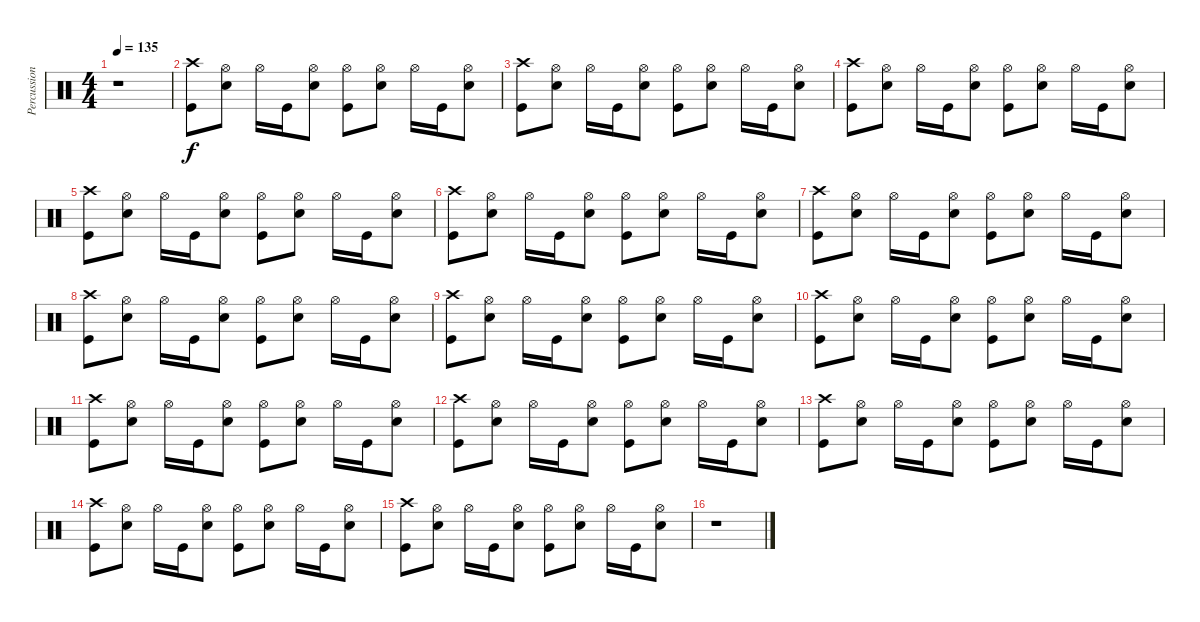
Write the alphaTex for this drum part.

\track ("Percussion" "Percussion") {instrument percussion}
\staff {score}
\articulation defaults
\ts (4 4)
\tempo 135
\clef neutral
\ks c
r.1{dy f} |
("Crash high (hit)" "Kick (hit)").8 ("Hi-Hat (open)" "Snare (hit) 2").8 "Hi-Hat (open)".16 "Kick (hit)".16 ("Hi-Hat (open)" "Snare (hit) 2").8 ("Hi-Hat (open)" "Kick (hit)").8 ("Hi-Hat (open)" "Snare (hit) 2").8 "Hi-Hat (open)".16 "Kick (hit)".16 ("Hi-Hat (open)" "Snare (hit) 2").8 |
("Crash high (hit)" "Kick (hit)").8 ("Hi-Hat (open)" "Snare (hit) 2").8 "Hi-Hat (open)".16 "Kick (hit)".16 ("Hi-Hat (open)" "Snare (hit) 2").8 ("Hi-Hat (open)" "Kick (hit)").8 ("Hi-Hat (open)" "Snare (hit) 2").8 "Hi-Hat (open)".16 "Kick (hit)".16 ("Hi-Hat (open)" "Snare (hit) 2").8 |
("Crash high (hit)" "Kick (hit)").8 ("Hi-Hat (open)" "Snare (hit) 2").8 "Hi-Hat (open)".16 "Kick (hit)".16 ("Hi-Hat (open)" "Snare (hit) 2").8 ("Hi-Hat (open)" "Kick (hit)").8 ("Hi-Hat (open)" "Snare (hit) 2").8 "Hi-Hat (open)".16 "Kick (hit)".16 ("Hi-Hat (open)" "Snare (hit) 2").8 |
("Crash high (hit)" "Kick (hit)").8 ("Hi-Hat (open)" "Snare (hit) 2").8 "Hi-Hat (open)".16 "Kick (hit)".16 ("Hi-Hat (open)" "Snare (hit) 2").8 ("Hi-Hat (open)" "Kick (hit)").8 ("Hi-Hat (open)" "Snare (hit) 2").8 "Hi-Hat (open)".16 "Kick (hit)".16 ("Hi-Hat (open)" "Snare (hit) 2").8 |
("Crash high (hit)" "Kick (hit)").8 ("Hi-Hat (open)" "Snare (hit) 2").8 "Hi-Hat (open)".16 "Kick (hit)".16 ("Hi-Hat (open)" "Snare (hit) 2").8 ("Hi-Hat (open)" "Kick (hit)").8 ("Hi-Hat (open)" "Snare (hit) 2").8 "Hi-Hat (open)".16 "Kick (hit)".16 ("Hi-Hat (open)" "Snare (hit) 2").8 |
("Crash high (hit)" "Kick (hit)").8 ("Hi-Hat (open)" "Snare (hit) 2").8 "Hi-Hat (open)".16 "Kick (hit)".16 ("Hi-Hat (open)" "Snare (hit) 2").8 ("Hi-Hat (open)" "Kick (hit)").8 ("Hi-Hat (open)" "Snare (hit) 2").8 "Hi-Hat (open)".16 "Kick (hit)".16 ("Hi-Hat (open)" "Snare (hit) 2").8 |
("Crash high (hit)" "Kick (hit)").8 ("Hi-Hat (open)" "Snare (hit) 2").8 "Hi-Hat (open)".16 "Kick (hit)".16 ("Hi-Hat (open)" "Snare (hit) 2").8 ("Hi-Hat (open)" "Kick (hit)").8 ("Hi-Hat (open)" "Snare (hit) 2").8 "Hi-Hat (open)".16 "Kick (hit)".16 ("Hi-Hat (open)" "Snare (hit) 2").8 |
("Crash high (hit)" "Kick (hit)").8 ("Hi-Hat (open)" "Snare (hit) 2").8 "Hi-Hat (open)".16 "Kick (hit)".16 ("Hi-Hat (open)" "Snare (hit) 2").8 ("Hi-Hat (open)" "Kick (hit)").8 ("Hi-Hat (open)" "Snare (hit) 2").8 "Hi-Hat (open)".16 "Kick (hit)".16 ("Hi-Hat (open)" "Snare (hit) 2").8 |
("Crash high (hit)" "Kick (hit)").8 ("Hi-Hat (open)" "Snare (hit) 2").8 "Hi-Hat (open)".16 "Kick (hit)".16 ("Hi-Hat (open)" "Snare (hit) 2").8 ("Hi-Hat (open)" "Kick (hit)").8 ("Hi-Hat (open)" "Snare (hit) 2").8 "Hi-Hat (open)".16 "Kick (hit)".16 ("Hi-Hat (open)" "Snare (hit) 2").8 |
("Crash high (hit)" "Kick (hit)").8 ("Hi-Hat (open)" "Snare (hit) 2").8 "Hi-Hat (open)".16 "Kick (hit)".16 ("Hi-Hat (open)" "Snare (hit) 2").8 ("Hi-Hat (open)" "Kick (hit)").8 ("Hi-Hat (open)" "Snare (hit) 2").8 "Hi-Hat (open)".16 "Kick (hit)".16 ("Hi-Hat (open)" "Snare (hit) 2").8 |
("Crash high (hit)" "Kick (hit)").8 ("Hi-Hat (open)" "Snare (hit) 2").8 "Hi-Hat (open)".16 "Kick (hit)".16 ("Hi-Hat (open)" "Snare (hit) 2").8 ("Hi-Hat (open)" "Kick (hit)").8 ("Hi-Hat (open)" "Snare (hit) 2").8 "Hi-Hat (open)".16 "Kick (hit)".16 ("Hi-Hat (open)" "Snare (hit) 2").8 |
("Crash high (hit)" "Kick (hit)").8 ("Hi-Hat (open)" "Snare (hit) 2").8 "Hi-Hat (open)".16 "Kick (hit)".16 ("Hi-Hat (open)" "Snare (hit) 2").8 ("Hi-Hat (open)" "Kick (hit)").8 ("Hi-Hat (open)" "Snare (hit) 2").8 "Hi-Hat (open)".16 "Kick (hit)".16 ("Hi-Hat (open)" "Snare (hit) 2").8 |
("Crash high (hit)" "Kick (hit)").8 ("Hi-Hat (open)" "Snare (hit) 2").8 "Hi-Hat (open)".16 "Kick (hit)".16 ("Hi-Hat (open)" "Snare (hit) 2").8 ("Hi-Hat (open)" "Kick (hit)").8 ("Hi-Hat (open)" "Snare (hit) 2").8 "Hi-Hat (open)".16 "Kick (hit)".16 ("Hi-Hat (open)" "Snare (hit) 2").8 |
("Crash high (hit)" "Kick (hit)").8 ("Hi-Hat (open)" "Snare (hit) 2").8 "Hi-Hat (open)".16 "Kick (hit)".16 ("Hi-Hat (open)" "Snare (hit) 2").8 ("Hi-Hat (open)" "Kick (hit)").8 ("Hi-Hat (open)" "Snare (hit) 2").8 "Hi-Hat (open)".16 "Kick (hit)".16 ("Hi-Hat (open)" "Snare (hit) 2").8 |
r.1
